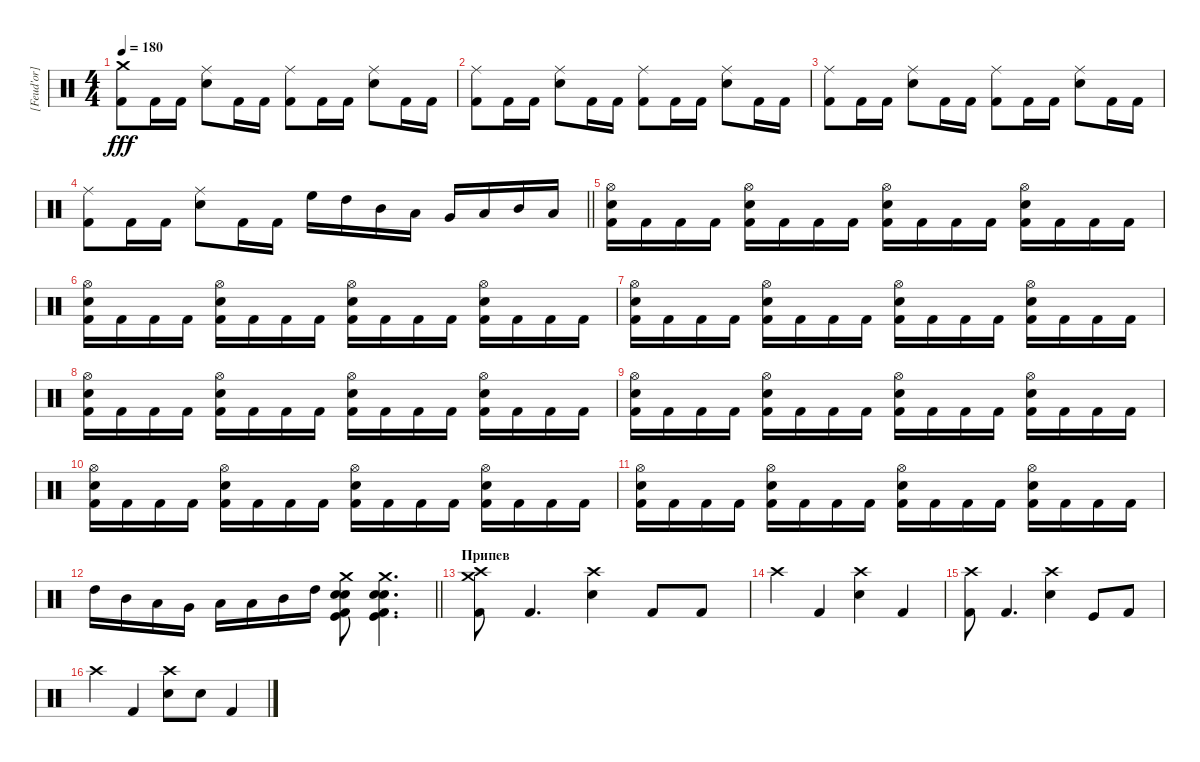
\track ("[Feud'or] - Drums" "[Feud'or] ") {instrument percussion}
\staff {score}
\articulation defaults
\ts (4 4)
\tempo 180
\clef neutral
\ks c
("Crash medium (hit)" "Kick (hit) 2").8{dy fff} "Kick (hit) 2".16 "Kick (hit) 2".16 ("Ride (middle)" "Snare (hit) 2").8 "Kick (hit) 2".16 "Kick (hit) 2".16 ("Ride (middle)" "Kick (hit) 2").8 "Kick (hit) 2".16 "Kick (hit) 2".16 ("Ride (middle)" "Snare (hit) 2").8 "Kick (hit) 2".16 "Kick (hit) 2".16 |
("Ride (middle)" "Kick (hit) 2").8 "Kick (hit) 2".16 "Kick (hit) 2".16 ("Ride (middle)" "Snare (hit) 2").8 "Kick (hit) 2".16 "Kick (hit) 2".16 ("Ride (middle)" "Kick (hit) 2").8 "Kick (hit) 2".16 "Kick (hit) 2".16 ("Ride (middle)" "Snare (hit) 2").8 "Kick (hit) 2".16 "Kick (hit) 2".16 |
("Ride (middle)" "Kick (hit) 2").8 "Kick (hit) 2".16 "Kick (hit) 2".16 ("Ride (middle)" "Snare (hit) 2").8 "Kick (hit) 2".16 "Kick (hit) 2".16 ("Ride (middle)" "Kick (hit) 2").8 "Kick (hit) 2".16 "Kick (hit) 2".16 ("Ride (middle)" "Snare (hit) 2").8 "Kick (hit) 2".16 "Kick (hit) 2".16 |
\barLineRight lightlight
("Ride (middle)" "Kick (hit) 2").8 "Kick (hit) 2".16 "Kick (hit) 2".16 ("Ride (middle)" "Snare (hit) 2").8 "Kick (hit) 2".16 "Kick (hit) 2".16 "High Floor Tom (hit)".16 "High Tom (hit)".16 "Mid Tom (hit)".16 "Low Tom (hit)".16 "Very Low Tom (hit)".16 "Low Tom (hit)".16 "Mid Tom (hit)".16 "Low Floor Tom (hit)".16 |
("Hi-Hat (open)" "Snare (hit) 2" "Kick (hit) 2").16 "Kick (hit) 2".16 "Kick (hit) 2".16 "Kick (hit) 2".16 ("Hi-Hat (open)" "Snare (hit) 2" "Kick (hit) 2").16 "Kick (hit) 2".16 "Kick (hit) 2".16 "Kick (hit) 2".16 ("Hi-Hat (open)" "Snare (hit) 2" "Kick (hit) 2").16 "Kick (hit) 2".16 "Kick (hit) 2".16 "Kick (hit) 2".16 ("Hi-Hat (open)" "Snare (hit) 2" "Kick (hit) 2").16 "Kick (hit) 2".16 "Kick (hit) 2".16 "Kick (hit) 2".16 |
("Hi-Hat (open)" "Snare (hit) 2" "Kick (hit) 2").16 "Kick (hit) 2".16 "Kick (hit) 2".16 "Kick (hit) 2".16 ("Hi-Hat (open)" "Snare (hit) 2" "Kick (hit) 2").16 "Kick (hit) 2".16 "Kick (hit) 2".16 "Kick (hit) 2".16 ("Hi-Hat (open)" "Snare (hit) 2" "Kick (hit) 2").16 "Kick (hit) 2".16 "Kick (hit) 2".16 "Kick (hit) 2".16 ("Hi-Hat (open)" "Snare (hit) 2" "Kick (hit) 2").16 "Kick (hit) 2".16 "Kick (hit) 2".16 "Kick (hit) 2".16 |
("Hi-Hat (open)" "Snare (hit) 2" "Kick (hit) 2").16 "Kick (hit) 2".16 "Kick (hit) 2".16 "Kick (hit) 2".16 ("Hi-Hat (open)" "Snare (hit) 2" "Kick (hit) 2").16 "Kick (hit) 2".16 "Kick (hit) 2".16 "Kick (hit) 2".16 ("Hi-Hat (open)" "Snare (hit) 2" "Kick (hit) 2").16 "Kick (hit) 2".16 "Kick (hit) 2".16 "Kick (hit) 2".16 ("Hi-Hat (open)" "Snare (hit) 2" "Kick (hit) 2").16 "Kick (hit) 2".16 "Kick (hit) 2".16 "Kick (hit) 2".16 |
("Hi-Hat (open)" "Snare (hit) 2" "Kick (hit) 2").16 "Kick (hit) 2".16 "Kick (hit) 2".16 "Kick (hit) 2".16 ("Hi-Hat (open)" "Snare (hit) 2" "Kick (hit) 2").16 "Kick (hit) 2".16 "Kick (hit) 2".16 "Kick (hit) 2".16 ("Hi-Hat (open)" "Snare (hit) 2" "Kick (hit) 2").16 "Kick (hit) 2".16 "Kick (hit) 2".16 "Kick (hit) 2".16 ("Hi-Hat (open)" "Snare (hit) 2" "Kick (hit) 2").16 "Kick (hit) 2".16 "Kick (hit) 2".16 "Kick (hit) 2".16 |
("Hi-Hat (open)" "Snare (hit) 2" "Kick (hit) 2").16 "Kick (hit) 2".16 "Kick (hit) 2".16 "Kick (hit) 2".16 ("Hi-Hat (open)" "Snare (hit) 2" "Kick (hit) 2").16 "Kick (hit) 2".16 "Kick (hit) 2".16 "Kick (hit) 2".16 ("Hi-Hat (open)" "Snare (hit) 2" "Kick (hit) 2").16 "Kick (hit) 2".16 "Kick (hit) 2".16 "Kick (hit) 2".16 ("Hi-Hat (open)" "Snare (hit) 2" "Kick (hit) 2").16 "Kick (hit) 2".16 "Kick (hit) 2".16 "Kick (hit) 2".16 |
("Hi-Hat (open)" "Snare (hit) 2" "Kick (hit) 2").16 "Kick (hit) 2".16 "Kick (hit) 2".16 "Kick (hit) 2".16 ("Hi-Hat (open)" "Snare (hit) 2" "Kick (hit) 2").16 "Kick (hit) 2".16 "Kick (hit) 2".16 "Kick (hit) 2".16 ("Hi-Hat (open)" "Snare (hit) 2" "Kick (hit) 2").16 "Kick (hit) 2".16 "Kick (hit) 2".16 "Kick (hit) 2".16 ("Hi-Hat (open)" "Snare (hit) 2" "Kick (hit) 2").16 "Kick (hit) 2".16 "Kick (hit) 2".16 "Kick (hit) 2".16 |
("Hi-Hat (open)" "Snare (hit) 2" "Kick (hit) 2").16 "Kick (hit) 2".16 "Kick (hit) 2".16 "Kick (hit) 2".16 ("Hi-Hat (open)" "Snare (hit) 2" "Kick (hit) 2").16 "Kick (hit) 2".16 "Kick (hit) 2".16 "Kick (hit) 2".16 ("Hi-Hat (open)" "Snare (hit) 2" "Kick (hit) 2").16 "Kick (hit) 2".16 "Kick (hit) 2".16 "Kick (hit) 2".16 ("Hi-Hat (open)" "Snare (hit) 2" "Kick (hit) 2").16 "Kick (hit) 2".16 "Kick (hit) 2".16 "Kick (hit) 2".16 |
\barLineRight lightlight "High Tom (hit)".16 "Mid Tom (hit)".16 "Low Tom (hit)".16 "Very Low Tom (hit)".16 "Low Floor Tom (hit)".16 "Low Tom (hit)".16 "Mid Tom (hit)".16 "High Tom (hit)".16
("Crash medium (hit)" "Kick (hit) 2" "Kick (hit)" "Electric Snare (hit)" "Snare (hit) 2").8 ("Crash medium (hit)" "Kick (hit) 2" "Kick (hit)" "Electric Snare (hit)" "Snare (hit) 2").4{d} |
\section ("" "Припев")
("Crash high (hit)" "Crash medium (hit)" "Kick (hit) 2").8 "Kick (hit) 2".4{d} ("Crash high (hit)" "Snare (hit) 2").4 "Kick (hit) 2".8 "Kick (hit) 2".8 |
"Crash high (hit)".4 "Kick (hit) 2".4 ("Crash high (hit)" "Snare (hit) 2").4 "Kick (hit) 2".4 |
("Crash high (hit)" "Kick (hit) 2").8 "Kick (hit) 2".4{d} ("Crash high (hit)" "Snare (hit) 2").4 "Kick (hit)".8 "Kick (hit) 2".8 |
"Crash high (hit)".4 "Kick (hit) 2".4 ("Crash high (hit)" "Snare (hit) 2").8 "Snare (hit) 2".8 "Kick (hit) 2".4
